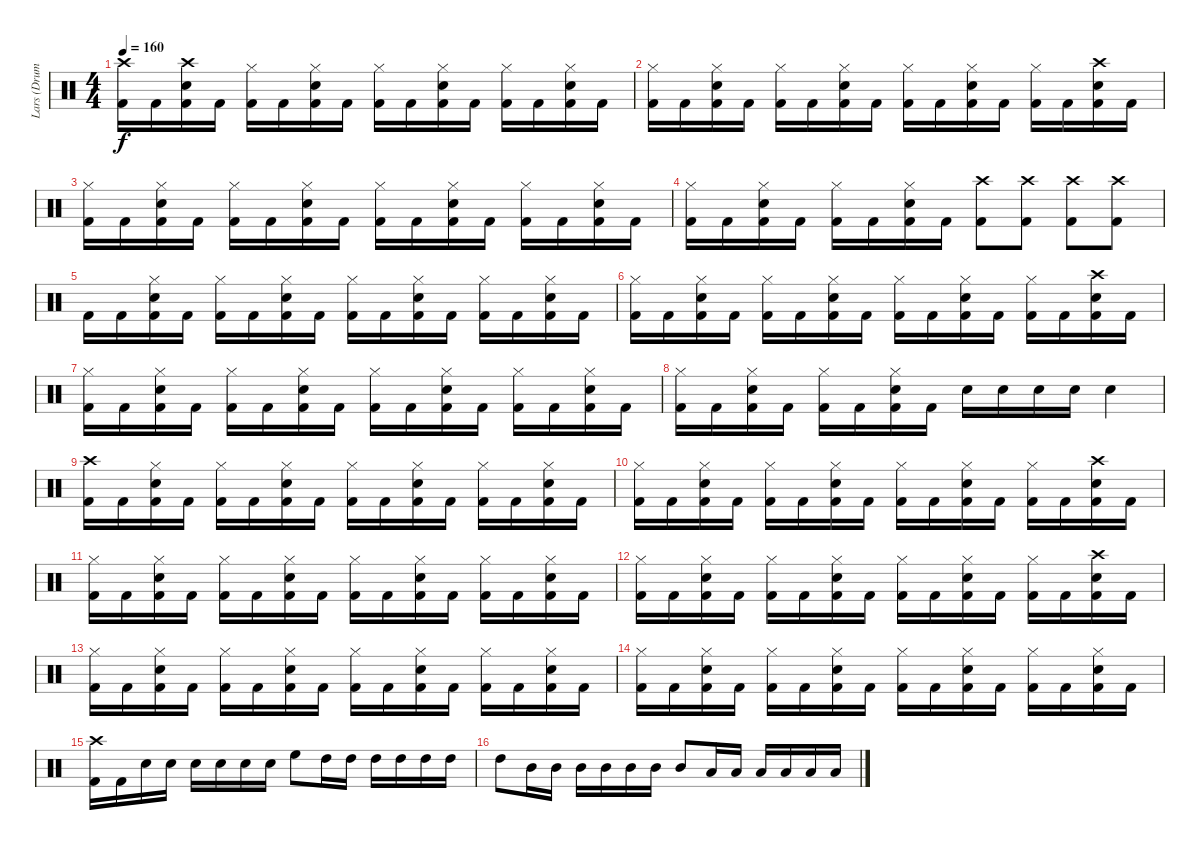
\track ("Lars (Drums)" "Lars (Drum") {instrument percussion}
\staff {score}
\articulation defaults
\ts (4 4)
\tempo 160
\clef neutral
\ks c
("Crash high (hit)" "Kick (hit) 2").16{dy f} "Kick (hit) 2".16 ("Crash high (hit)" "Kick (hit) 2" "Snare (hit) 2").16 "Kick (hit) 2".16 ("Hi-Hat (closed)" "Kick (hit) 2").16 "Kick (hit) 2".16 ("Hi-Hat (closed)" "Kick (hit) 2" "Snare (hit) 2").16 "Kick (hit) 2".16 ("Hi-Hat (closed)" "Kick (hit) 2").16 "Kick (hit) 2".16 ("Hi-Hat (closed)" "Kick (hit) 2" "Snare (hit) 2").16 "Kick (hit) 2".16 ("Hi-Hat (closed)" "Kick (hit) 2").16 "Kick (hit) 2".16 ("Hi-Hat (closed)" "Kick (hit) 2" "Snare (hit) 2").16 "Kick (hit) 2".16 |
("Hi-Hat (closed)" "Kick (hit) 2").16 "Kick (hit) 2".16 ("Hi-Hat (closed)" "Kick (hit) 2" "Snare (hit) 2").16 "Kick (hit) 2".16 ("Hi-Hat (closed)" "Kick (hit) 2").16 "Kick (hit) 2".16 ("Hi-Hat (closed)" "Kick (hit) 2" "Snare (hit) 2").16 "Kick (hit) 2".16 ("Hi-Hat (closed)" "Kick (hit) 2").16 "Kick (hit) 2".16 ("Hi-Hat (closed)" "Kick (hit) 2" "Snare (hit) 2").16 "Kick (hit) 2".16 ("Hi-Hat (closed)" "Kick (hit) 2").16 "Kick (hit) 2".16 ("Crash high (hit)" "Kick (hit) 2" "Snare (hit) 2").16 "Kick (hit) 2".16 |
("Hi-Hat (closed)" "Kick (hit) 2").16 "Kick (hit) 2".16 ("Hi-Hat (closed)" "Kick (hit) 2" "Snare (hit) 2").16 "Kick (hit) 2".16 ("Hi-Hat (closed)" "Kick (hit) 2").16 "Kick (hit) 2".16 ("Hi-Hat (closed)" "Kick (hit) 2" "Snare (hit) 2").16 "Kick (hit) 2".16 ("Hi-Hat (closed)" "Kick (hit) 2").16 "Kick (hit) 2".16 ("Hi-Hat (closed)" "Kick (hit) 2" "Snare (hit) 2").16 "Kick (hit) 2".16 ("Hi-Hat (closed)" "Kick (hit) 2").16 "Kick (hit) 2".16 ("Hi-Hat (closed)" "Kick (hit) 2" "Snare (hit) 2").16 "Kick (hit) 2".16 |
("Hi-Hat (closed)" "Kick (hit) 2").16 "Kick (hit) 2".16 ("Hi-Hat (closed)" "Kick (hit) 2" "Snare (hit) 2").16 "Kick (hit) 2".16 ("Hi-Hat (closed)" "Kick (hit) 2").16 "Kick (hit) 2".16 ("Hi-Hat (closed)" "Kick (hit) 2" "Snare (hit) 2").16 "Kick (hit) 2".16 ("Crash high (hit)" "Kick (hit) 2").8 ("Crash high (hit)" "Kick (hit) 2").8 ("Crash high (hit)" "Kick (hit) 2").8 ("Crash high (hit)" "Kick (hit) 2").8 |
"Kick (hit) 2".16 "Kick (hit) 2".16 ("Hi-Hat (closed)" "Kick (hit) 2" "Snare (hit) 2").16 "Kick (hit) 2".16 ("Hi-Hat (closed)" "Kick (hit) 2").16 "Kick (hit) 2".16 ("Hi-Hat (closed)" "Kick (hit) 2" "Snare (hit) 2").16 "Kick (hit) 2".16 ("Hi-Hat (closed)" "Kick (hit) 2").16 "Kick (hit) 2".16 ("Hi-Hat (closed)" "Kick (hit) 2" "Snare (hit) 2").16 "Kick (hit) 2".16 ("Hi-Hat (closed)" "Kick (hit) 2").16 "Kick (hit) 2".16 ("Hi-Hat (closed)" "Kick (hit) 2" "Snare (hit) 2").16 "Kick (hit) 2".16 |
("Hi-Hat (closed)" "Kick (hit) 2").16 "Kick (hit) 2".16 ("Hi-Hat (closed)" "Kick (hit) 2" "Snare (hit) 2").16 "Kick (hit) 2".16 ("Hi-Hat (closed)" "Kick (hit) 2").16 "Kick (hit) 2".16 ("Hi-Hat (closed)" "Kick (hit) 2" "Snare (hit) 2").16 "Kick (hit) 2".16 ("Hi-Hat (closed)" "Kick (hit) 2").16 "Kick (hit) 2".16 ("Hi-Hat (closed)" "Kick (hit) 2" "Snare (hit) 2").16 "Kick (hit) 2".16 ("Hi-Hat (closed)" "Kick (hit) 2").16 "Kick (hit) 2".16 ("Crash high (hit)" "Kick (hit) 2" "Snare (hit) 2").16 "Kick (hit) 2".16 |
("Hi-Hat (closed)" "Kick (hit) 2").16 "Kick (hit) 2".16 ("Hi-Hat (closed)" "Kick (hit) 2" "Snare (hit) 2").16 "Kick (hit) 2".16 ("Hi-Hat (closed)" "Kick (hit) 2").16 "Kick (hit) 2".16 ("Hi-Hat (closed)" "Kick (hit) 2" "Snare (hit) 2").16 "Kick (hit) 2".16 ("Hi-Hat (closed)" "Kick (hit) 2").16 "Kick (hit) 2".16 ("Hi-Hat (closed)" "Kick (hit) 2" "Snare (hit) 2").16 "Kick (hit) 2".16 ("Hi-Hat (closed)" "Kick (hit) 2").16 "Kick (hit) 2".16 ("Hi-Hat (closed)" "Kick (hit) 2" "Snare (hit) 2").16 "Kick (hit) 2".16 |
("Hi-Hat (closed)" "Kick (hit) 2").16 "Kick (hit) 2".16 ("Hi-Hat (closed)" "Kick (hit) 2" "Snare (hit) 2").16 "Kick (hit) 2".16 ("Hi-Hat (closed)" "Kick (hit) 2").16 "Kick (hit) 2".16 ("Hi-Hat (closed)" "Kick (hit) 2" "Snare (hit) 2").16 "Kick (hit) 2".16 "Snare (hit) 2".16 "Snare (hit) 2".16 "Snare (hit) 2".16 "Snare (hit) 2".16 "Snare (hit) 2".4 |
("Crash high (hit)" "Kick (hit) 2").16 "Kick (hit) 2".16 ("Hi-Hat (closed)" "Kick (hit) 2" "Snare (hit) 2").16 "Kick (hit) 2".16 ("Hi-Hat (closed)" "Kick (hit) 2").16 "Kick (hit) 2".16 ("Hi-Hat (closed)" "Kick (hit) 2" "Snare (hit) 2").16 "Kick (hit) 2".16 ("Hi-Hat (closed)" "Kick (hit) 2").16 "Kick (hit) 2".16 ("Hi-Hat (closed)" "Kick (hit) 2" "Snare (hit) 2").16 "Kick (hit) 2".16 ("Hi-Hat (closed)" "Kick (hit) 2").16 "Kick (hit) 2".16 ("Hi-Hat (closed)" "Kick (hit) 2" "Snare (hit) 2").16 "Kick (hit) 2".16 |
("Hi-Hat (closed)" "Kick (hit) 2").16 "Kick (hit) 2".16 ("Hi-Hat (closed)" "Kick (hit) 2" "Snare (hit) 2").16 "Kick (hit) 2".16 ("Hi-Hat (closed)" "Kick (hit) 2").16 "Kick (hit) 2".16 ("Hi-Hat (closed)" "Kick (hit) 2" "Snare (hit) 2").16 "Kick (hit) 2".16 ("Hi-Hat (closed)" "Kick (hit) 2").16 "Kick (hit) 2".16 ("Hi-Hat (closed)" "Kick (hit) 2" "Snare (hit) 2").16 "Kick (hit) 2".16 ("Hi-Hat (closed)" "Kick (hit) 2").16 "Kick (hit) 2".16 ("Crash high (hit)" "Kick (hit) 2" "Snare (hit) 2").16 "Kick (hit) 2".16 |
("Hi-Hat (closed)" "Kick (hit) 2").16 "Kick (hit) 2".16 ("Hi-Hat (closed)" "Kick (hit) 2" "Snare (hit) 2").16 "Kick (hit) 2".16 ("Hi-Hat (closed)" "Kick (hit) 2").16 "Kick (hit) 2".16 ("Hi-Hat (closed)" "Kick (hit) 2" "Snare (hit) 2").16 "Kick (hit) 2".16 ("Hi-Hat (closed)" "Kick (hit) 2").16 "Kick (hit) 2".16 ("Hi-Hat (closed)" "Kick (hit) 2" "Snare (hit) 2").16 "Kick (hit) 2".16 ("Hi-Hat (closed)" "Kick (hit) 2").16 "Kick (hit) 2".16 ("Hi-Hat (closed)" "Kick (hit) 2" "Snare (hit) 2").16 "Kick (hit) 2".16 |
("Hi-Hat (closed)" "Kick (hit) 2").16 "Kick (hit) 2".16 ("Hi-Hat (closed)" "Kick (hit) 2" "Snare (hit) 2").16 "Kick (hit) 2".16 ("Hi-Hat (closed)" "Kick (hit) 2").16 "Kick (hit) 2".16 ("Hi-Hat (closed)" "Kick (hit) 2" "Snare (hit) 2").16 "Kick (hit) 2".16 ("Hi-Hat (closed)" "Kick (hit) 2").16 "Kick (hit) 2".16 ("Hi-Hat (closed)" "Kick (hit) 2" "Snare (hit) 2").16 "Kick (hit) 2".16 ("Hi-Hat (closed)" "Kick (hit) 2").16 "Kick (hit) 2".16 ("Crash high (hit)" "Kick (hit) 2" "Snare (hit) 2").16 "Kick (hit) 2".16 |
("Hi-Hat (closed)" "Kick (hit) 2").16 "Kick (hit) 2".16 ("Hi-Hat (closed)" "Kick (hit) 2" "Snare (hit) 2").16 "Kick (hit) 2".16 ("Hi-Hat (closed)" "Kick (hit) 2").16 "Kick (hit) 2".16 ("Hi-Hat (closed)" "Kick (hit) 2" "Snare (hit) 2").16 "Kick (hit) 2".16 ("Hi-Hat (closed)" "Kick (hit) 2").16 "Kick (hit) 2".16 ("Hi-Hat (closed)" "Kick (hit) 2" "Snare (hit) 2").16 "Kick (hit) 2".16 ("Hi-Hat (closed)" "Kick (hit) 2").16 "Kick (hit) 2".16 ("Hi-Hat (closed)" "Kick (hit) 2" "Snare (hit) 2").16 "Kick (hit) 2".16 |
("Hi-Hat (closed)" "Kick (hit) 2").16 "Kick (hit) 2".16 ("Hi-Hat (closed)" "Kick (hit) 2" "Snare (hit) 2").16 "Kick (hit) 2".16 ("Hi-Hat (closed)" "Kick (hit) 2").16 "Kick (hit) 2".16 ("Hi-Hat (closed)" "Kick (hit) 2" "Snare (hit) 2").16 "Kick (hit) 2".16 ("Hi-Hat (closed)" "Kick (hit) 2").16 "Kick (hit) 2".16 ("Hi-Hat (closed)" "Kick (hit) 2" "Snare (hit) 2").16 "Kick (hit) 2".16 ("Hi-Hat (closed)" "Kick (hit) 2").16 "Kick (hit) 2".16 ("Hi-Hat (closed)" "Kick (hit) 2" "Snare (hit) 2").16 "Kick (hit) 2".16 |
("Crash high (hit)" "Kick (hit) 2").16 "Kick (hit) 2".16 "Snare (hit) 2".16 "Snare (hit) 2".16 "Snare (hit) 2".16 "Snare (hit) 2".16 "Snare (hit) 2".16 "Snare (hit) 2".16 "High Floor Tom (hit)".8 "High Tom (hit)".16 "High Tom (hit)".16 "High Tom (hit)".16 "High Tom (hit)".16 "High Tom (hit)".16 "High Tom (hit)".16 |
"High Tom (hit)".8 "Mid Tom (hit)".16 "Mid Tom (hit)".16 "Mid Tom (hit)".16 "Mid Tom (hit)".16 "Mid Tom (hit)".16 "Mid Tom (hit)".16 "Mid Tom (hit)".8 "Low Tom (hit)".16 "Low Tom (hit)".16 "Low Tom (hit)".16 "Low Tom (hit)".16 "Low Tom (hit)".16 "Low Tom (hit)".16
